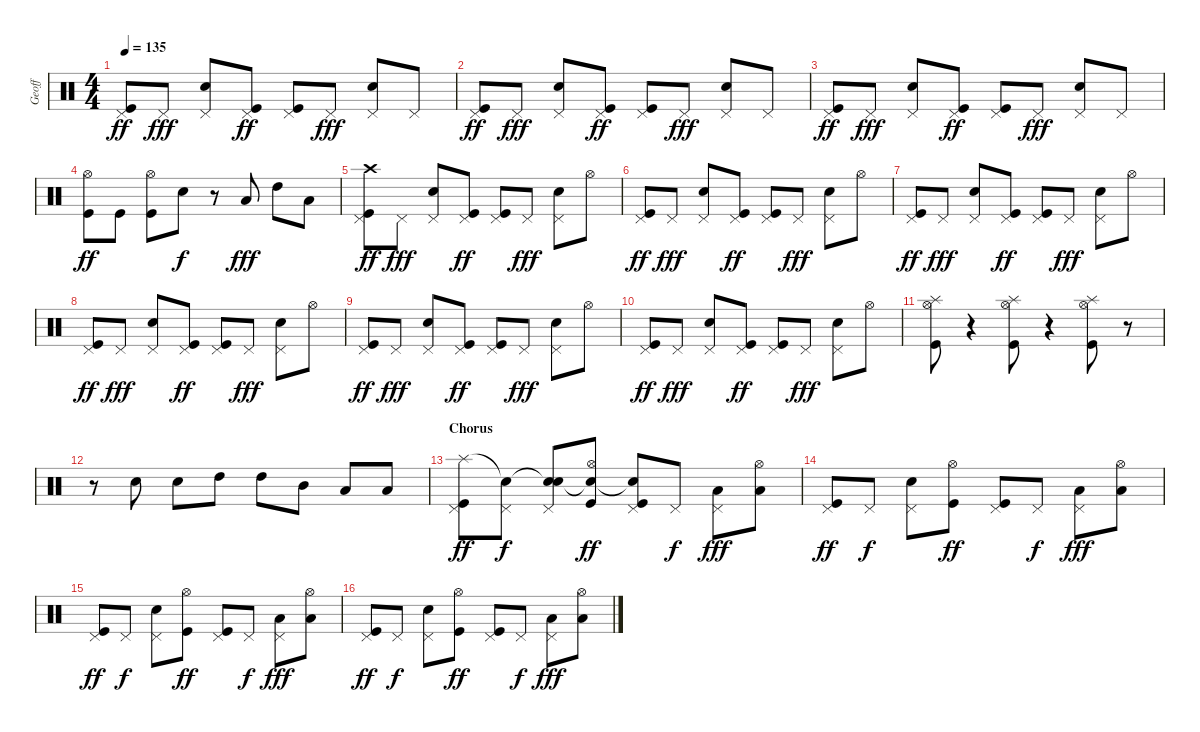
\track ("Geoff" "Geoff") {instrument percussion}
\staff {score}
\articulation defaults
\ts (4 4)
\tempo 135
\clef neutral
\ks c
("Pedal Hi-Hat (hit)" "Kick (hit)").8{dy ff} "Pedal Hi-Hat (hit)".8{dy fff} ("Pedal Hi-Hat (hit)" "Electric Snare (hit)").8 ("Pedal Hi-Hat (hit)" "Kick (hit)").8{dy ff} ("Pedal Hi-Hat (hit)" "Kick (hit)").8 "Pedal Hi-Hat (hit)".8{dy fff} ("Pedal Hi-Hat (hit)" "Electric Snare (hit)").8 "Pedal Hi-Hat (hit)".8 |
("Pedal Hi-Hat (hit)" "Kick (hit)").8{dy ff} "Pedal Hi-Hat (hit)".8{dy fff} ("Pedal Hi-Hat (hit)" "Electric Snare (hit)").8 ("Pedal Hi-Hat (hit)" "Kick (hit)").8{dy ff} ("Pedal Hi-Hat (hit)" "Kick (hit)").8 "Pedal Hi-Hat (hit)".8{dy fff} ("Pedal Hi-Hat (hit)" "Electric Snare (hit)").8 "Pedal Hi-Hat (hit)".8 |
("Pedal Hi-Hat (hit)" "Kick (hit)").8{dy ff} "Pedal Hi-Hat (hit)".8{dy fff} ("Pedal Hi-Hat (hit)" "Electric Snare (hit)").8 ("Pedal Hi-Hat (hit)" "Kick (hit)").8{dy ff} ("Pedal Hi-Hat (hit)" "Kick (hit)").8 "Pedal Hi-Hat (hit)".8{dy fff} ("Pedal Hi-Hat (hit)" "Electric Snare (hit)").8 "Pedal Hi-Hat (hit)".8 |
("Hi-Hat (open)" "Kick (hit)").8{dy ff} "Kick (hit)".8 ("Hi-Hat (open)" "Kick (hit)").8 "Electric Snare (hit)".8{dy f} r.8 "Low Tom (hit)".8{dy fff} "High Tom (hit)".8 "Low Tom (hit)".8 |
("Crash high (hit)" "Pedal Hi-Hat (hit)" "Kick (hit)").8{dy ff} "Pedal Hi-Hat (hit)".8{dy fff} ("Pedal Hi-Hat (hit)" "Electric Snare (hit)").8 ("Pedal Hi-Hat (hit)" "Kick (hit)").8{dy ff} ("Pedal Hi-Hat (hit)" "Kick (hit)").8 "Pedal Hi-Hat (hit)".8{dy fff} ("Pedal Hi-Hat (hit)" "Electric Snare (hit)").8 "Hi-Hat (open)".8 |
("Pedal Hi-Hat (hit)" "Kick (hit)").8{dy ff} "Pedal Hi-Hat (hit)".8{dy fff} ("Pedal Hi-Hat (hit)" "Electric Snare (hit)").8 ("Pedal Hi-Hat (hit)" "Kick (hit)").8{dy ff} ("Pedal Hi-Hat (hit)" "Kick (hit)").8 "Pedal Hi-Hat (hit)".8{dy fff} ("Pedal Hi-Hat (hit)" "Electric Snare (hit)").8 "Hi-Hat (open)".8 |
("Pedal Hi-Hat (hit)" "Kick (hit)").8{dy ff} "Pedal Hi-Hat (hit)".8{dy fff} ("Pedal Hi-Hat (hit)" "Electric Snare (hit)").8 ("Pedal Hi-Hat (hit)" "Kick (hit)").8{dy ff} ("Pedal Hi-Hat (hit)" "Kick (hit)").8 "Pedal Hi-Hat (hit)".8{dy fff} ("Pedal Hi-Hat (hit)" "Electric Snare (hit)").8 "Hi-Hat (open)".8 |
("Pedal Hi-Hat (hit)" "Kick (hit)").8{dy ff} "Pedal Hi-Hat (hit)".8{dy fff} ("Pedal Hi-Hat (hit)" "Electric Snare (hit)").8 ("Pedal Hi-Hat (hit)" "Kick (hit)").8{dy ff} ("Pedal Hi-Hat (hit)" "Kick (hit)").8 "Pedal Hi-Hat (hit)".8{dy fff} ("Pedal Hi-Hat (hit)" "Electric Snare (hit)").8 "Hi-Hat (open)".8 |
("Pedal Hi-Hat (hit)" "Kick (hit)").8{dy ff} "Pedal Hi-Hat (hit)".8{dy fff} ("Pedal Hi-Hat (hit)" "Electric Snare (hit)").8 ("Pedal Hi-Hat (hit)" "Kick (hit)").8{dy ff} ("Pedal Hi-Hat (hit)" "Kick (hit)").8 "Pedal Hi-Hat (hit)".8{dy fff} ("Pedal Hi-Hat (hit)" "Electric Snare (hit)").8 "Hi-Hat (open)".8 |
("Pedal Hi-Hat (hit)" "Kick (hit)").8{dy ff} "Pedal Hi-Hat (hit)".8{dy fff} ("Pedal Hi-Hat (hit)" "Electric Snare (hit)").8 ("Pedal Hi-Hat (hit)" "Kick (hit)").8{dy ff} ("Pedal Hi-Hat (hit)" "Kick (hit)").8 "Pedal Hi-Hat (hit)".8{dy fff} ("Pedal Hi-Hat (hit)" "Electric Snare (hit)").8 "Hi-Hat (open)".8 |
("Splash (hit)" "Hi-Hat (open)" "Kick (hit)").8 r.4 ("Splash (hit)" "Hi-Hat (open)" "Kick (hit)").8 r.4 ("Splash (hit)" "Hi-Hat (open)" "Kick (hit)").8 r.8 |
r.8 "Electric Snare (hit)".8 "Electric Snare (hit)".8 "High Tom (hit)".8 "High Tom (hit)".8 "Mid Tom (hit)".8 "Low Tom (hit)".8 "Low Tom (hit)".8 |
\section ("" "Chorus")
("Splash (hit)" "Pedal Hi-Hat (hit)" "Kick (hit)").8{dy ff} ("Snare (hit)"{t} "Pedal Hi-Hat (hit)").8{dy f} ("Snare (hit)"{t} "Pedal Hi-Hat (hit)" "Electric Snare (hit)").8 ("Snare (hit)"{t} "Hi-Hat (open)" "Kick (hit)").8{dy ff} ("Snare (hit)"{t} "Pedal Hi-Hat (hit)" "Kick (hit)").8 "Pedal Hi-Hat (hit)".8{dy f} ("Pedal Hi-Hat (hit)" "Low Tom (hit)").8{dy fff} ("Hi-Hat (open)" "Low Tom (hit)").8 |
("Pedal Hi-Hat (hit)" "Kick (hit)").8{dy ff} "Pedal Hi-Hat (hit)".8{dy f} ("Pedal Hi-Hat (hit)" "Electric Snare (hit)").8 ("Hi-Hat (open)" "Kick (hit)").8{dy ff} ("Pedal Hi-Hat (hit)" "Kick (hit)").8 "Pedal Hi-Hat (hit)".8{dy f} ("Pedal Hi-Hat (hit)" "Low Tom (hit)").8{dy fff} ("Hi-Hat (open)" "Low Tom (hit)").8 |
("Pedal Hi-Hat (hit)" "Kick (hit)").8{dy ff} "Pedal Hi-Hat (hit)".8{dy f} ("Pedal Hi-Hat (hit)" "Electric Snare (hit)").8 ("Hi-Hat (open)" "Kick (hit)").8{dy ff} ("Pedal Hi-Hat (hit)" "Kick (hit)").8 "Pedal Hi-Hat (hit)".8{dy f} ("Pedal Hi-Hat (hit)" "Low Tom (hit)").8{dy fff} ("Hi-Hat (open)" "Low Tom (hit)").8 |
("Pedal Hi-Hat (hit)" "Kick (hit)").8{dy ff} "Pedal Hi-Hat (hit)".8{dy f} ("Pedal Hi-Hat (hit)" "Electric Snare (hit)").8 ("Hi-Hat (open)" "Kick (hit)").8{dy ff} ("Pedal Hi-Hat (hit)" "Kick (hit)").8 "Pedal Hi-Hat (hit)".8{dy f} ("Pedal Hi-Hat (hit)" "Low Tom (hit)").8{dy fff} ("Hi-Hat (open)" "Low Tom (hit)").8
